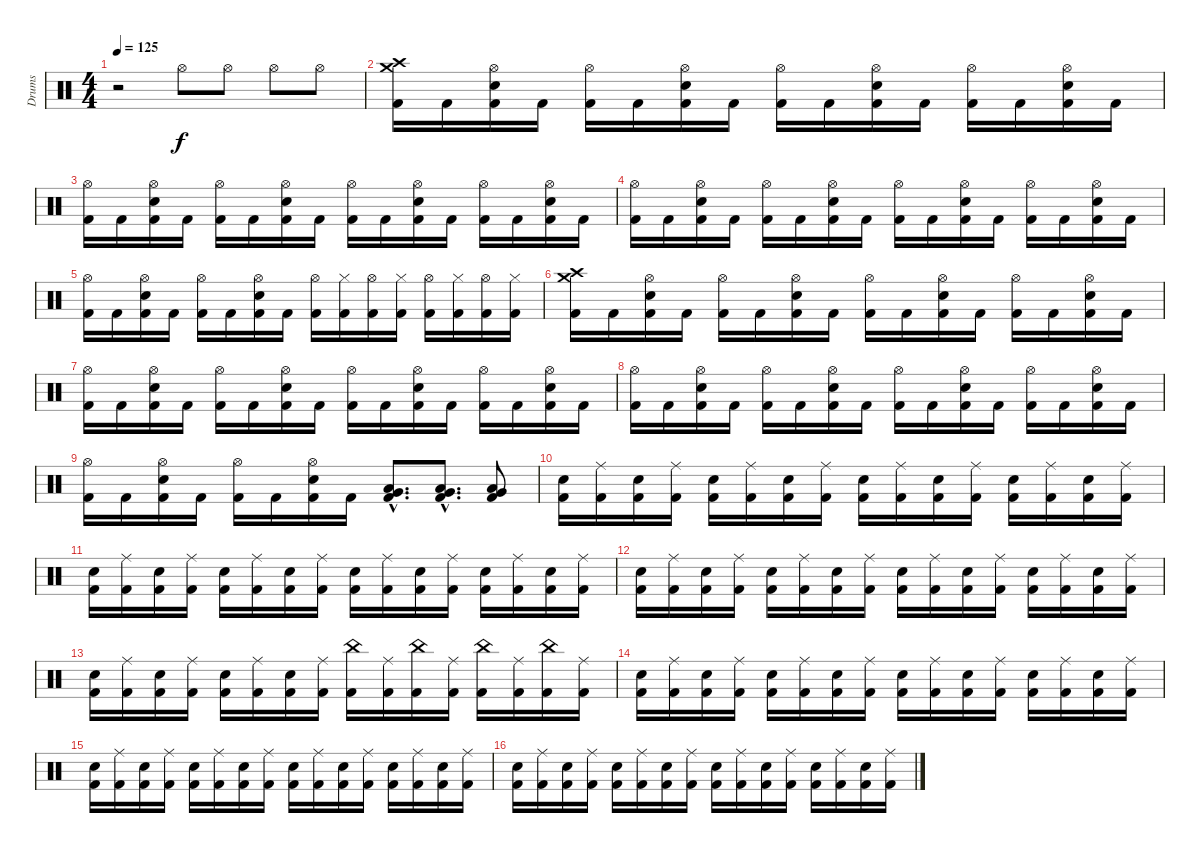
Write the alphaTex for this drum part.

\track ("Drums" "Drums") {instrument percussion}
\staff {score}
\articulation defaults
\ts (4 4)
\tempo 125
\clef neutral
\ks c
r.2{dy f} "Hi-Hat (open)".8 "Hi-Hat (open)".8 "Hi-Hat (open)".8 "Hi-Hat (open)".8 |
("Crash high (hit)" "Crash medium (hit)" "Kick (hit) 2").16 "Kick (hit) 2".16 ("Hi-Hat (open)" "Electric Snare (hit)" "Kick (hit) 2").16 "Kick (hit) 2".16 ("Hi-Hat (open)" "Kick (hit) 2").16 "Kick (hit) 2".16 ("Hi-Hat (open)" "Electric Snare (hit)" "Kick (hit) 2").16 "Kick (hit) 2".16 ("Hi-Hat (open)" "Kick (hit) 2").16 "Kick (hit) 2".16 ("Hi-Hat (open)" "Electric Snare (hit)" "Kick (hit) 2").16 "Kick (hit) 2".16 ("Hi-Hat (open)" "Kick (hit) 2").16 "Kick (hit) 2".16 ("Hi-Hat (open)" "Electric Snare (hit)" "Kick (hit) 2").16 "Kick (hit) 2".16 |
("Hi-Hat (open)" "Kick (hit) 2").16 "Kick (hit) 2".16 ("Hi-Hat (open)" "Electric Snare (hit)" "Kick (hit) 2").16 "Kick (hit) 2".16 ("Hi-Hat (open)" "Kick (hit) 2").16 "Kick (hit) 2".16 ("Hi-Hat (open)" "Electric Snare (hit)" "Kick (hit) 2").16 "Kick (hit) 2".16 ("Hi-Hat (open)" "Kick (hit) 2").16 "Kick (hit) 2".16 ("Hi-Hat (open)" "Electric Snare (hit)" "Kick (hit) 2").16 "Kick (hit) 2".16 ("Hi-Hat (open)" "Kick (hit) 2").16 "Kick (hit) 2".16 ("Hi-Hat (open)" "Electric Snare (hit)" "Kick (hit) 2").16 "Kick (hit) 2".16 |
("Hi-Hat (open)" "Kick (hit) 2").16 "Kick (hit) 2".16 ("Hi-Hat (open)" "Electric Snare (hit)" "Kick (hit) 2").16 "Kick (hit) 2".16 ("Hi-Hat (open)" "Kick (hit) 2").16 "Kick (hit) 2".16 ("Hi-Hat (open)" "Electric Snare (hit)" "Kick (hit) 2").16 "Kick (hit) 2".16 ("Hi-Hat (open)" "Kick (hit) 2").16 "Kick (hit) 2".16 ("Hi-Hat (open)" "Electric Snare (hit)" "Kick (hit) 2").16 "Kick (hit) 2".16 ("Hi-Hat (open)" "Kick (hit) 2").16 "Kick (hit) 2".16 ("Hi-Hat (open)" "Electric Snare (hit)" "Kick (hit) 2").16 "Kick (hit) 2".16 |
("Hi-Hat (open)" "Kick (hit) 2").16 "Kick (hit) 2".16 ("Hi-Hat (open)" "Electric Snare (hit)" "Kick (hit) 2").16 "Kick (hit) 2".16 ("Hi-Hat (open)" "Kick (hit) 2").16 "Kick (hit) 2".16 ("Hi-Hat (open)" "Electric Snare (hit)" "Kick (hit) 2").16 "Kick (hit) 2".16 ("Hi-Hat (open)" "Kick (hit) 2").16 ("Hi-Hat (closed)" "Kick (hit) 2").16 ("Hi-Hat (open)" "Kick (hit) 2").16 ("Hi-Hat (closed)" "Kick (hit) 2").16 ("Hi-Hat (open)" "Kick (hit) 2").16 ("Hi-Hat (closed)" "Kick (hit) 2").16 ("Hi-Hat (open)" "Kick (hit) 2").16 ("Hi-Hat (closed)" "Kick (hit) 2").16 |
("Crash high (hit)" "Crash medium (hit)" "Kick (hit) 2").16 "Kick (hit) 2".16 ("Hi-Hat (open)" "Electric Snare (hit)" "Kick (hit) 2").16 "Kick (hit) 2".16 ("Hi-Hat (open)" "Kick (hit) 2").16 "Kick (hit) 2".16 ("Hi-Hat (open)" "Electric Snare (hit)" "Kick (hit) 2").16 "Kick (hit) 2".16 ("Hi-Hat (open)" "Kick (hit) 2").16 "Kick (hit) 2".16 ("Hi-Hat (open)" "Electric Snare (hit)" "Kick (hit) 2").16 "Kick (hit) 2".16 ("Hi-Hat (open)" "Kick (hit) 2").16 "Kick (hit) 2".16 ("Hi-Hat (open)" "Electric Snare (hit)" "Kick (hit) 2").16 "Kick (hit) 2".16 |
("Hi-Hat (open)" "Kick (hit) 2").16 "Kick (hit) 2".16 ("Hi-Hat (open)" "Electric Snare (hit)" "Kick (hit) 2").16 "Kick (hit) 2".16 ("Hi-Hat (open)" "Kick (hit) 2").16 "Kick (hit) 2".16 ("Hi-Hat (open)" "Electric Snare (hit)" "Kick (hit) 2").16 "Kick (hit) 2".16 ("Hi-Hat (open)" "Kick (hit) 2").16 "Kick (hit) 2".16 ("Hi-Hat (open)" "Electric Snare (hit)" "Kick (hit) 2").16 "Kick (hit) 2".16 ("Hi-Hat (open)" "Kick (hit) 2").16 "Kick (hit) 2".16 ("Hi-Hat (open)" "Electric Snare (hit)" "Kick (hit) 2").16 "Kick (hit) 2".16 |
("Hi-Hat (open)" "Kick (hit) 2").16 "Kick (hit) 2".16 ("Hi-Hat (open)" "Electric Snare (hit)" "Kick (hit) 2").16 "Kick (hit) 2".16 ("Hi-Hat (open)" "Kick (hit) 2").16 "Kick (hit) 2".16 ("Hi-Hat (open)" "Electric Snare (hit)" "Kick (hit) 2").16 "Kick (hit) 2".16 ("Hi-Hat (open)" "Kick (hit) 2").16 "Kick (hit) 2".16 ("Hi-Hat (open)" "Electric Snare (hit)" "Kick (hit) 2").16 "Kick (hit) 2".16 ("Hi-Hat (open)" "Kick (hit) 2").16 "Kick (hit) 2".16 ("Hi-Hat (open)" "Electric Snare (hit)" "Kick (hit) 2").16 "Kick (hit) 2".16 |
("Hi-Hat (open)" "Kick (hit) 2").16 "Kick (hit) 2".16 ("Hi-Hat (open)" "Electric Snare (hit)" "Kick (hit) 2").16 "Kick (hit) 2".16 ("Hi-Hat (open)" "Kick (hit) 2").16 "Kick (hit) 2".16 ("Hi-Hat (open)" "Electric Snare (hit)" "Kick (hit) 2").16 "Kick (hit) 2".16 ("Very Low Tom (hit)"{hac} "Low Floor Tom (hit)"{hac} "Kick (hit) 2"{hac}).8{d} ("Very Low Tom (hit)"{hac} "Low Floor Tom (hit)"{hac} "Kick (hit) 2"{hac}).8{d} ("Very Low Tom (hit)" "Low Floor Tom (hit)" "Kick (hit) 2").8 |
("Electric Snare (hit)" "Kick (hit) 2").16 ("Ride (middle)" "Kick (hit) 2").16 ("Electric Snare (hit)" "Kick (hit) 2").16 ("Ride (middle)" "Kick (hit) 2").16 ("Electric Snare (hit)" "Kick (hit) 2").16 ("Ride (middle)" "Kick (hit) 2").16 ("Electric Snare (hit)" "Kick (hit) 2").16 ("Ride (middle)" "Kick (hit) 2").16 ("Electric Snare (hit)" "Kick (hit) 2").16 ("Ride (middle)" "Kick (hit) 2").16 ("Electric Snare (hit)" "Kick (hit) 2").16 ("Ride (middle)" "Kick (hit) 2").16 ("Electric Snare (hit)" "Kick (hit) 2").16 ("Ride (middle)" "Kick (hit) 2").16 ("Electric Snare (hit)" "Kick (hit) 2").16 ("Ride (middle)" "Kick (hit) 2").16 |
("Electric Snare (hit)" "Kick (hit) 2").16 ("Ride (middle)" "Kick (hit) 2").16 ("Electric Snare (hit)" "Kick (hit) 2").16 ("Ride (middle)" "Kick (hit) 2").16 ("Electric Snare (hit)" "Kick (hit) 2").16 ("Ride (middle)" "Kick (hit) 2").16 ("Electric Snare (hit)" "Kick (hit) 2").16 ("Ride (middle)" "Kick (hit) 2").16 ("Electric Snare (hit)" "Kick (hit) 2").16 ("Ride (middle)" "Kick (hit) 2").16 ("Electric Snare (hit)" "Kick (hit) 2").16 ("Ride (middle)" "Kick (hit) 2").16 ("Electric Snare (hit)" "Kick (hit) 2").16 ("Ride (middle)" "Kick (hit) 2").16 ("Electric Snare (hit)" "Kick (hit) 2").16 ("Ride (middle)" "Kick (hit) 2").16 |
("Electric Snare (hit)" "Kick (hit) 2").16 ("Ride (middle)" "Kick (hit) 2").16 ("Electric Snare (hit)" "Kick (hit) 2").16 ("Ride (middle)" "Kick (hit) 2").16 ("Electric Snare (hit)" "Kick (hit) 2").16 ("Ride (middle)" "Kick (hit) 2").16 ("Electric Snare (hit)" "Kick (hit) 2").16 ("Ride (middle)" "Kick (hit) 2").16 ("Electric Snare (hit)" "Kick (hit) 2").16 ("Ride (middle)" "Kick (hit) 2").16 ("Electric Snare (hit)" "Kick (hit) 2").16 ("Ride (middle)" "Kick (hit) 2").16 ("Electric Snare (hit)" "Kick (hit) 2").16 ("Ride (middle)" "Kick (hit) 2").16 ("Electric Snare (hit)" "Kick (hit) 2").16 ("Ride (middle)" "Kick (hit) 2").16 |
("Electric Snare (hit)" "Kick (hit) 2").16 ("Ride (middle)" "Kick (hit) 2").16 ("Electric Snare (hit)" "Kick (hit) 2").16 ("Ride (middle)" "Kick (hit) 2").16 ("Electric Snare (hit)" "Kick (hit) 2").16 ("Ride (middle)" "Kick (hit) 2").16 ("Electric Snare (hit)" "Kick (hit) 2").16 ("Ride (middle)" "Kick (hit) 2").16 ("China (hit)" "Kick (hit) 2").16 ("Ride (middle)" "Kick (hit) 2").16 ("China (hit)" "Kick (hit) 2").16 ("Ride (middle)" "Kick (hit) 2").16 ("China (hit)" "Kick (hit) 2").16 ("Ride (middle)" "Kick (hit) 2").16 ("China (hit)" "Kick (hit) 2").16 ("Ride (middle)" "Kick (hit) 2").16 |
("Electric Snare (hit)" "Kick (hit) 2").16 ("Ride (middle)" "Kick (hit) 2").16 ("Electric Snare (hit)" "Kick (hit) 2").16 ("Ride (middle)" "Kick (hit) 2").16 ("Electric Snare (hit)" "Kick (hit) 2").16 ("Ride (middle)" "Kick (hit) 2").16 ("Electric Snare (hit)" "Kick (hit) 2").16 ("Ride (middle)" "Kick (hit) 2").16 ("Electric Snare (hit)" "Kick (hit) 2").16 ("Ride (middle)" "Kick (hit) 2").16 ("Electric Snare (hit)" "Kick (hit) 2").16 ("Ride (middle)" "Kick (hit) 2").16 ("Electric Snare (hit)" "Kick (hit) 2").16 ("Ride (middle)" "Kick (hit) 2").16 ("Electric Snare (hit)" "Kick (hit) 2").16 ("Ride (middle)" "Kick (hit) 2").16 |
("Electric Snare (hit)" "Kick (hit) 2").16 ("Ride (middle)" "Kick (hit) 2").16 ("Electric Snare (hit)" "Kick (hit) 2").16 ("Ride (middle)" "Kick (hit) 2").16 ("Electric Snare (hit)" "Kick (hit) 2").16 ("Ride (middle)" "Kick (hit) 2").16 ("Electric Snare (hit)" "Kick (hit) 2").16 ("Ride (middle)" "Kick (hit) 2").16 ("Electric Snare (hit)" "Kick (hit) 2").16 ("Ride (middle)" "Kick (hit) 2").16 ("Electric Snare (hit)" "Kick (hit) 2").16 ("Ride (middle)" "Kick (hit) 2").16 ("Electric Snare (hit)" "Kick (hit) 2").16 ("Ride (middle)" "Kick (hit) 2").16 ("Electric Snare (hit)" "Kick (hit) 2").16 ("Ride (middle)" "Kick (hit) 2").16 |
("Electric Snare (hit)" "Kick (hit) 2").16 ("Ride (middle)" "Kick (hit) 2").16 ("Electric Snare (hit)" "Kick (hit) 2").16 ("Ride (middle)" "Kick (hit) 2").16 ("Electric Snare (hit)" "Kick (hit) 2").16 ("Ride (middle)" "Kick (hit) 2").16 ("Electric Snare (hit)" "Kick (hit) 2").16 ("Ride (middle)" "Kick (hit) 2").16 ("Electric Snare (hit)" "Kick (hit) 2").16 ("Ride (middle)" "Kick (hit) 2").16 ("Electric Snare (hit)" "Kick (hit) 2").16 ("Ride (middle)" "Kick (hit) 2").16 ("Electric Snare (hit)" "Kick (hit) 2").16 ("Ride (middle)" "Kick (hit) 2").16 ("Electric Snare (hit)" "Kick (hit) 2").16 ("Ride (middle)" "Kick (hit) 2").16
